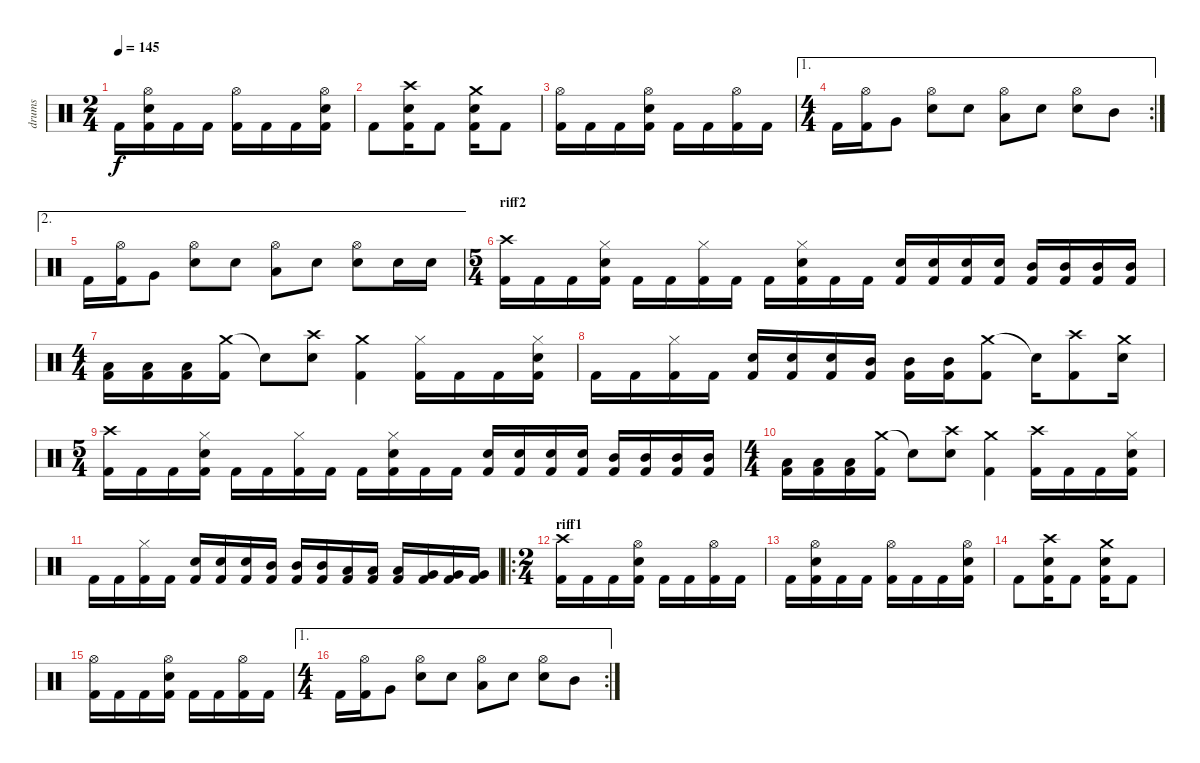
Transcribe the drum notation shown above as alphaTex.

\track ("drums" "drums") {instrument percussion}
\staff {score}
\articulation defaults
\ts (2 4)
\tempo 145
\clef neutral
\ks c "Kick (hit) 2".16{dy f}
("Snare (hit) 2" "Kick (hit) 2" "Hi-Hat (open)").16 "Kick (hit) 2".16 "Kick (hit) 2".16 ("Kick (hit) 2" "Hi-Hat (open)").16 "Kick (hit) 2".16 "Kick (hit) 2".16 ("Snare (hit) 2" "Kick (hit) 2" "Hi-Hat (open)").16 |
"Kick (hit) 2".8 ("Crash high (hit)" "Snare (hit) 2" "Kick (hit) 2").16 "Kick (hit) 2".8 ("Crash medium (hit)" "Snare (hit) 2" "Kick (hit) 2").16 "Kick (hit) 2".8 |
("Kick (hit) 2" "Hi-Hat (open)").16 "Kick (hit) 2".16 "Kick (hit) 2".16 ("Snare (hit) 2" "Kick (hit) 2" "Hi-Hat (open)").16 "Kick (hit) 2".16 "Kick (hit) 2".16 ("Kick (hit) 2" "Hi-Hat (open)").16 "Kick (hit) 2".16 |
\ae 1
\rc 2
\ts (4 4)
"Kick (hit) 2".16 ("Kick (hit) 2" "Hi-Hat (open)").16 "Very Low Tom (hit)".8 ("Snare (hit) 2" "Hi-Hat (open)").8 "Snare (hit) 2".8 ("Low Tom (hit)" "Hi-Hat (open)").8 "Snare (hit) 2".8 ("Snare (hit) 2" "Hi-Hat (open)").8 "Mid Tom (hit)".8 |
\ae 2 "Kick (hit) 2".16
("Kick (hit) 2" "Hi-Hat (open)").16 "Very Low Tom (hit)".8 ("Snare (hit) 2" "Hi-Hat (open)").8 "Snare (hit) 2".8 ("Low Tom (hit)" "Hi-Hat (open)").8 "Snare (hit) 2".8 ("Snare (hit) 2" "Hi-Hat (open)").8 "Snare (hit) 2".16 "Snare (hit) 2".16 |
\ts (5 4)
\section ("" "riff2")
("Crash high (hit)" "Kick (hit) 2").16 "Kick (hit) 2".16 "Kick (hit) 2".16 ("Snare (hit) 2" "Kick (hit) 2" "Hi-Hat (closed)").16 "Kick (hit) 2".16 "Kick (hit) 2".16 ("Kick (hit) 2" "Hi-Hat (closed)").16 "Kick (hit) 2".16 "Kick (hit) 2".16 ("Snare (hit) 2" "Kick (hit) 2" "Hi-Hat (closed)").16 "Kick (hit) 2".16 "Kick (hit) 2".16 ("Snare (hit) 2" "Kick (hit) 2").16 ("Snare (hit) 2" "Kick (hit) 2").16 ("Snare (hit) 2" "Kick (hit) 2").16 ("Snare (hit) 2" "Kick (hit) 2").16 ("Mid Tom (hit)" "Kick (hit) 2").16 ("Mid Tom (hit)" "Kick (hit) 2").16 ("Mid Tom (hit)" "Kick (hit) 2").16 ("Mid Tom (hit)" "Kick (hit) 2").16 |
\ts (4 4)
("Low Tom (hit)" "Kick (hit) 2").16 ("Low Tom (hit)" "Kick (hit) 2").16 ("Low Tom (hit)" "Kick (hit) 2").16 ("Crash medium (hit)" "Kick (hit) 2").16 "Snare (hit)"{t}.8 ("Crash high (hit)" "Snare (hit) 2").8 ("Crash medium (hit)" "Kick (hit) 2").4 ("Kick (hit) 2" "Hi-Hat (closed)").16 "Kick (hit) 2".16 "Kick (hit) 2".16 ("Snare (hit) 2" "Kick (hit) 2" "Hi-Hat (closed)").16 |
"Kick (hit) 2".16 "Kick (hit) 2".16 ("Kick (hit) 2" "Hi-Hat (closed)").16 "Kick (hit) 2".16 ("Snare (hit) 2" "Kick (hit) 2").16 ("Snare (hit) 2" "Kick (hit) 2").16 ("Snare (hit) 2" "Kick (hit) 2").16 ("Mid Tom (hit)" "Kick (hit) 2").16 ("Mid Tom (hit)" "Kick (hit) 2").16 ("Mid Tom (hit)" "Kick (hit) 2").16 ("Crash medium (hit)" "Kick (hit) 2").8 "Snare (hit)"{t}.16 ("Crash high (hit)" "Kick (hit) 2").8 ("Crash medium (hit)" "Snare (hit) 2").16 |
\ts (5 4)
("Crash high (hit)" "Kick (hit) 2").16 "Kick (hit) 2".16 "Kick (hit) 2".16 ("Snare (hit) 2" "Kick (hit) 2" "Hi-Hat (closed)").16 "Kick (hit) 2".16 "Kick (hit) 2".16 ("Kick (hit) 2" "Hi-Hat (closed)").16 "Kick (hit) 2".16 "Kick (hit) 2".16 ("Snare (hit) 2" "Kick (hit) 2" "Hi-Hat (closed)").16 "Kick (hit) 2".16 "Kick (hit) 2".16 ("Snare (hit) 2" "Kick (hit) 2").16 ("Snare (hit) 2" "Kick (hit) 2").16 ("Snare (hit) 2" "Kick (hit) 2").16 ("Snare (hit) 2" "Kick (hit) 2").16 ("Mid Tom (hit)" "Kick (hit) 2").16 ("Mid Tom (hit)" "Kick (hit) 2").16 ("Mid Tom (hit)" "Kick (hit) 2").16 ("Mid Tom (hit)" "Kick (hit) 2").16 |
\ts (4 4)
("Low Tom (hit)" "Kick (hit) 2").16 ("Low Tom (hit)" "Kick (hit) 2").16 ("Low Tom (hit)" "Kick (hit) 2").16 ("Crash medium (hit)" "Kick (hit) 2").16 "Snare (hit)"{t}.8 ("Crash high (hit)" "Snare (hit) 2").8 ("Crash medium (hit)" "Kick (hit) 2").4 ("Crash high (hit)" "Kick (hit) 2").16 "Kick (hit) 2".16 "Kick (hit) 2".16 ("Snare (hit) 2" "Kick (hit) 2" "Hi-Hat (closed)").16 |
"Kick (hit) 2".16 "Kick (hit) 2".16 ("Kick (hit) 2" "Hi-Hat (closed)").16 "Kick (hit) 2".16 ("Snare (hit) 2" "Kick (hit) 2").16 ("Snare (hit) 2" "Kick (hit) 2").16 ("Snare (hit) 2" "Kick (hit) 2").16 ("Mid Tom (hit)" "Kick (hit) 2").16 ("Mid Tom (hit)" "Kick (hit) 2").16 ("Mid Tom (hit)" "Kick (hit) 2").16 ("Low Tom (hit)" "Kick (hit) 2").16 ("Low Tom (hit)" "Kick (hit) 2").16 ("Low Tom (hit)" "Kick (hit) 2").16 ("Very Low Tom (hit)" "Kick (hit) 2").16 ("Very Low Tom (hit)" "Kick (hit) 2").16 ("Very Low Tom (hit)" "Kick (hit) 2").16 |
\ro
\ts (2 4)
\section ("" "riff1")
("Crash high (hit)" "Kick (hit) 2").16 "Kick (hit) 2".16 "Kick (hit) 2".16 ("Snare (hit) 2" "Kick (hit) 2" "Hi-Hat (open)").16 "Kick (hit) 2".16 "Kick (hit) 2".16 ("Kick (hit) 2" "Hi-Hat (open)").16 "Kick (hit) 2".16 |
"Kick (hit) 2".16 ("Snare (hit) 2" "Kick (hit) 2" "Hi-Hat (open)").16 "Kick (hit) 2".16 "Kick (hit) 2".16 ("Kick (hit) 2" "Hi-Hat (open)").16 "Kick (hit) 2".16 "Kick (hit) 2".16 ("Snare (hit) 2" "Kick (hit) 2" "Hi-Hat (open)").16 |
"Kick (hit) 2".8 ("Crash high (hit)" "Snare (hit) 2" "Kick (hit) 2").16 "Kick (hit) 2".8 ("Crash medium (hit)" "Snare (hit) 2" "Kick (hit) 2").16 "Kick (hit) 2".8 |
("Kick (hit) 2" "Hi-Hat (open)").16 "Kick (hit) 2".16 "Kick (hit) 2".16 ("Snare (hit) 2" "Kick (hit) 2" "Hi-Hat (open)").16 "Kick (hit) 2".16 "Kick (hit) 2".16 ("Kick (hit) 2" "Hi-Hat (open)").16 "Kick (hit) 2".16 |
\ae 1
\rc 2
\ts (4 4)
"Kick (hit) 2".16 ("Kick (hit) 2" "Hi-Hat (open)").16 "Very Low Tom (hit)".8 ("Snare (hit) 2" "Hi-Hat (open)").8 "Snare (hit) 2".8 ("Low Tom (hit)" "Hi-Hat (open)").8 "Snare (hit) 2".8 ("Snare (hit) 2" "Hi-Hat (open)").8 "Mid Tom (hit)".8
